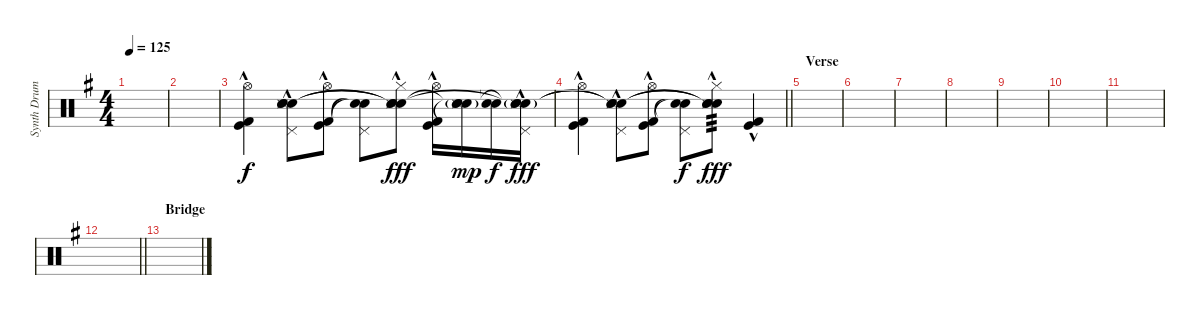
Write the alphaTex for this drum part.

\track ("Synth Drums" "Synth Drum") {instrument percussion}
\staff {score}
\articulation defaults
\ts (4 4)
\tempo 125
\clef neutral
\ks eminor
|
|
("Hi-Hat (open)"{hac} "Kick (hit) 2"{hac} "Kick (hit)"{hac}).4 ("Pedal Hi-Hat (hit)" "Snare (hit) 2" "Snare (side stick) 3"{hac} "Snare (hit)" "Snare (hit)").8 ("Hi-Hat (open)" "Kick (hit) 2"{hac} "Kick (hit)"{hac}).8 ("Pedal Hi-Hat (hit)" "Snare (hit)"{t} "Snare (hit)"{t}).8{dy f} ("Hi-Hat (closed)" "Snare (hit) 2" "Snare (side stick) 3"{hac} "Snare (hit)"{t} "Snare (hit)"{t}).8{dy fff} ("Hi-Hat (open)" "Kick (hit) 2"{hac} "Kick (hit)"{hac}).16 ("Snare (hit) 2"{g} "Snare (side stick) 3" "Snare (hit)"{t} "Snare (hit)"{t}).16{dy mp} ("Snare (hit)"{t} "Snare (hit)"{t}).16{dy f} ("Pedal Hi-Hat (hit)" "Snare (hit) 2"{g} "Snare (side stick) 3"{hac} "Snare (hit)"{t} "Snare (hit)"{t}).16{dy fff} |
\barLineRight lightlight
("Hi-Hat (open)"{hac} "Kick (hit) 2"{hac} "Kick (hit)"{hac}).4 ("Pedal Hi-Hat (hit)" "Snare (hit) 2" "Snare (side stick) 3"{hac} "Snare (hit)"{t} "Snare (hit)"{t}).8 ("Hi-Hat (open)" "Kick (hit) 2"{hac} "Kick (hit)"{hac}).8 ("Pedal Hi-Hat (hit)" "Snare (hit)"{t} "Snare (hit)"{t}).8{dy f} ("Hi-Hat (closed)" "Snare (hit) 2" "Snare (side stick) 3"{hac} "Snare (hit)"{t} "Snare (hit)"{t}).8{tp 3 dy fff} ("Kick (hit) 2"{hac} "Kick (hit)"{hac}).4 |
\section ("" "Verse")
|
|
|
|
|
|
|
\barLineRight lightlight
|
\section ("" "Bridge")
